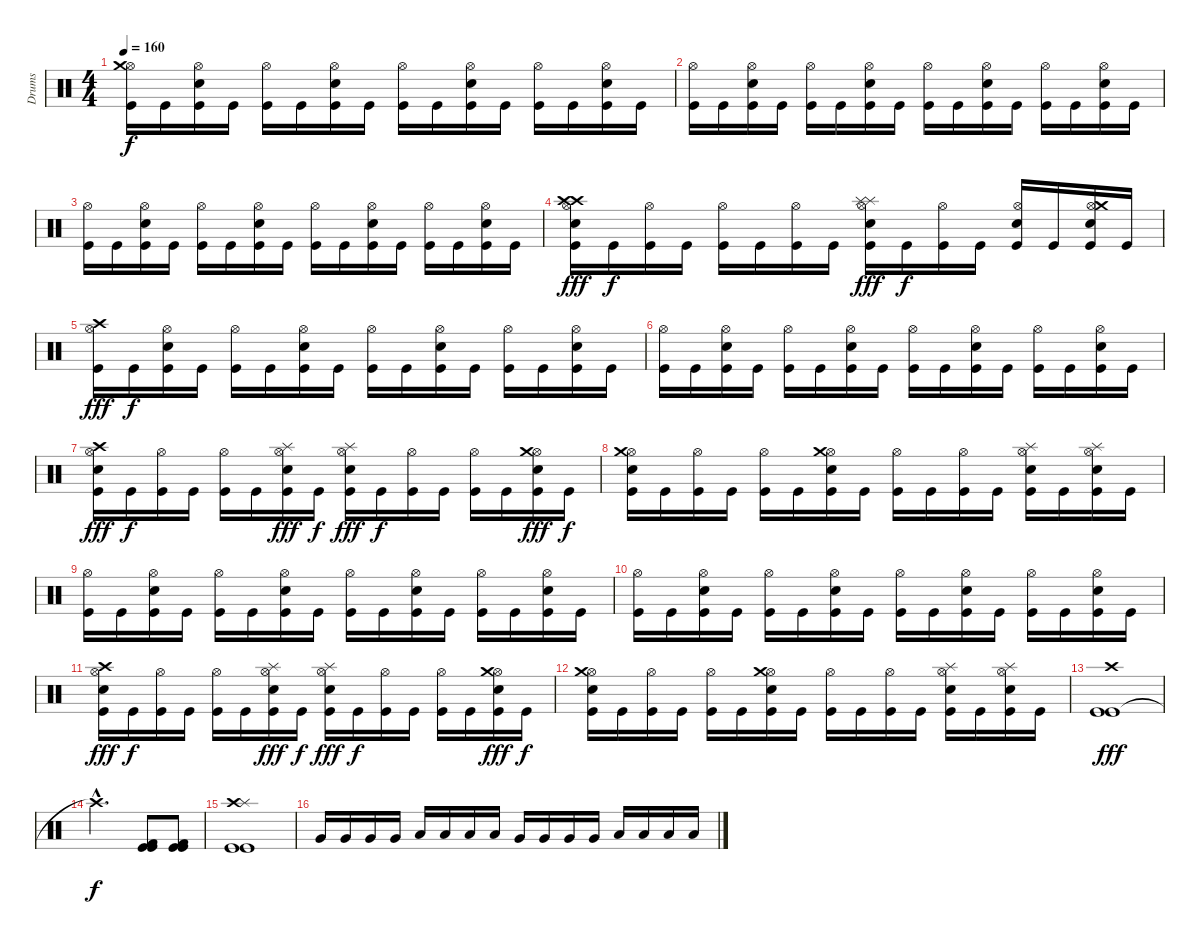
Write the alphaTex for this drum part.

\track ("Drums" "Drums") {instrument percussion}
\staff {score}
\articulation defaults
\ts (4 4)
\tempo 160
\clef neutral
\ks c
("Kick (hit)" "Hi-Hat (open)" "Crash medium (hit)").16{dy f} "Kick (hit)".16 ("Electric Snare (hit)" "Kick (hit)" "Hi-Hat (open)").16 "Kick (hit)".16 ("Kick (hit)" "Hi-Hat (open)").16 "Kick (hit)".16 ("Electric Snare (hit)" "Kick (hit)" "Hi-Hat (open)").16 "Kick (hit)".16 ("Kick (hit)" "Hi-Hat (open)").16 "Kick (hit)".16 ("Electric Snare (hit)" "Kick (hit)" "Hi-Hat (open)").16 "Kick (hit)".16 ("Kick (hit)" "Hi-Hat (open)").16 "Kick (hit)".16 ("Electric Snare (hit)" "Kick (hit)" "Hi-Hat (open)").16 "Kick (hit)".16 |
("Kick (hit)" "Hi-Hat (open)").16 "Kick (hit)".16 ("Electric Snare (hit)" "Kick (hit)" "Hi-Hat (open)").16 "Kick (hit)".16 ("Kick (hit)" "Hi-Hat (open)").16 "Kick (hit)".16 ("Electric Snare (hit)" "Kick (hit)" "Hi-Hat (open)").16 "Kick (hit)".16 ("Kick (hit)" "Hi-Hat (open)").16 "Kick (hit)".16 ("Electric Snare (hit)" "Kick (hit)" "Hi-Hat (open)").16 "Kick (hit)".16 ("Kick (hit)" "Hi-Hat (open)").16 "Kick (hit)".16 ("Electric Snare (hit)" "Kick (hit)" "Hi-Hat (open)").16 "Kick (hit)".16 |
("Kick (hit)" "Hi-Hat (open)").16 "Kick (hit)".16 ("Electric Snare (hit)" "Kick (hit)" "Hi-Hat (open)").16 "Kick (hit)".16 ("Kick (hit)" "Hi-Hat (open)").16 "Kick (hit)".16 ("Electric Snare (hit)" "Kick (hit)" "Hi-Hat (open)").16 "Kick (hit)".16 ("Kick (hit)" "Hi-Hat (open)").16 "Kick (hit)".16 ("Electric Snare (hit)" "Kick (hit)" "Hi-Hat (open)").16 "Kick (hit)".16 ("Kick (hit)" "Hi-Hat (open)").16 "Kick (hit)".16 ("Electric Snare (hit)" "Kick (hit)" "Hi-Hat (open)").16 "Kick (hit)".16 |
("Electric Snare (hit)" "Kick (hit)" "Hi-Hat (open)" "Crash high (hit)" "Crash high (hit)").16{dy fff} "Kick (hit)".16{dy f} ("Kick (hit)" "Hi-Hat (open)").16 "Kick (hit)".16 ("Kick (hit)" "Hi-Hat (open)").16 "Kick (hit)".16 ("Kick (hit)" "Hi-Hat (open)").16 "Kick (hit)".16 ("Electric Snare (hit)" "Kick (hit)" "Hi-Hat (open)" "Splash (hit)" "Splash (hit)").16{dy fff} "Kick (hit)".16{dy f} ("Kick (hit)" "Hi-Hat (open)").16 "Kick (hit)".16 ("Electric Snare (hit)" "Kick (hit)" "Hi-Hat (open)").16 "Kick (hit)".16 ("Electric Snare (hit)" "Kick (hit)" "Hi-Hat (open)" "Crash medium (hit)").16 "Kick (hit)".16 |
("Kick (hit)" "Hi-Hat (open)" "Crash high (hit)").16{dy fff} "Kick (hit)".16{dy f} ("Electric Snare (hit)" "Kick (hit)" "Hi-Hat (open)").16 "Kick (hit)".16 ("Kick (hit)" "Hi-Hat (open)").16 "Kick (hit)".16 ("Electric Snare (hit)" "Kick (hit)" "Hi-Hat (open)").16 "Kick (hit)".16 ("Kick (hit)" "Hi-Hat (open)").16 "Kick (hit)".16 ("Electric Snare (hit)" "Kick (hit)" "Hi-Hat (open)").16 "Kick (hit)".16 ("Kick (hit)" "Hi-Hat (open)").16 "Kick (hit)".16 ("Electric Snare (hit)" "Kick (hit)" "Hi-Hat (open)").16 "Kick (hit)".16 |
("Kick (hit)" "Hi-Hat (open)").16 "Kick (hit)".16 ("Electric Snare (hit)" "Kick (hit)" "Hi-Hat (open)").16 "Kick (hit)".16 ("Kick (hit)" "Hi-Hat (open)").16 "Kick (hit)".16 ("Electric Snare (hit)" "Kick (hit)" "Hi-Hat (open)").16 "Kick (hit)".16 ("Kick (hit)" "Hi-Hat (open)").16 "Kick (hit)".16 ("Electric Snare (hit)" "Kick (hit)" "Hi-Hat (open)").16 "Kick (hit)".16 ("Kick (hit)" "Hi-Hat (open)").16 "Kick (hit)".16 ("Electric Snare (hit)" "Kick (hit)" "Hi-Hat (open)").16 "Kick (hit)".16 |
("Electric Snare (hit)" "Kick (hit)" "Hi-Hat (open)" "Crash high (hit)").16{dy fff} "Kick (hit)".16{dy f} ("Kick (hit)" "Hi-Hat (open)").16 "Kick (hit)".16 ("Kick (hit)" "Hi-Hat (open)").16 "Kick (hit)".16 ("Electric Snare (hit)" "Kick (hit)" "Hi-Hat (open)" "Splash (hit)").16{dy fff} "Kick (hit)".16{dy f} ("Electric Snare (hit)" "Kick (hit)" "Hi-Hat (open)" "Splash (hit)").16{dy fff} "Kick (hit)".16{dy f} ("Kick (hit)" "Hi-Hat (open)").16 "Kick (hit)".16 ("Kick (hit)" "Hi-Hat (open)").16 "Kick (hit)".16 ("Electric Snare (hit)" "Kick (hit)" "Hi-Hat (open)" "Crash medium (hit)").16{dy fff} "Kick (hit)".16{dy f} |
("Electric Snare (hit)" "Kick (hit)" "Hi-Hat (open)" "Crash medium (hit)").16 "Kick (hit)".16 ("Kick (hit)" "Hi-Hat (open)").16 "Kick (hit)".16 ("Kick (hit)" "Hi-Hat (open)").16 "Kick (hit)".16 ("Electric Snare (hit)" "Kick (hit)" "Hi-Hat (open)" "Crash medium (hit)").16 "Kick (hit)".16 ("Kick (hit)" "Hi-Hat (open)").16 "Kick (hit)".16 ("Kick (hit)" "Hi-Hat (open)").16 "Kick (hit)".16 ("Electric Snare (hit)" "Kick (hit)" "Hi-Hat (open)" "Splash (hit)").16 "Kick (hit)".16 ("Electric Snare (hit)" "Kick (hit)" "Hi-Hat (open)" "Splash (hit)").16 "Kick (hit)".16 |
("Kick (hit)" "Hi-Hat (open)").16 "Kick (hit)".16 ("Electric Snare (hit)" "Kick (hit)" "Hi-Hat (open)").16 "Kick (hit)".16 ("Kick (hit)" "Hi-Hat (open)").16 "Kick (hit)".16 ("Electric Snare (hit)" "Kick (hit)" "Hi-Hat (open)").16 "Kick (hit)".16 ("Kick (hit)" "Hi-Hat (open)").16 "Kick (hit)".16 ("Electric Snare (hit)" "Kick (hit)" "Hi-Hat (open)").16 "Kick (hit)".16 ("Kick (hit)" "Hi-Hat (open)").16 "Kick (hit)".16 ("Electric Snare (hit)" "Kick (hit)" "Hi-Hat (open)").16 "Kick (hit)".16 |
("Kick (hit)" "Hi-Hat (open)").16 "Kick (hit)".16 ("Electric Snare (hit)" "Kick (hit)" "Hi-Hat (open)").16 "Kick (hit)".16 ("Kick (hit)" "Hi-Hat (open)").16 "Kick (hit)".16 ("Electric Snare (hit)" "Kick (hit)" "Hi-Hat (open)").16 "Kick (hit)".16 ("Kick (hit)" "Hi-Hat (open)").16 "Kick (hit)".16 ("Electric Snare (hit)" "Kick (hit)" "Hi-Hat (open)").16 "Kick (hit)".16 ("Kick (hit)" "Hi-Hat (open)").16 "Kick (hit)".16 ("Electric Snare (hit)" "Kick (hit)" "Hi-Hat (open)").16 "Kick (hit)".16 |
("Electric Snare (hit)" "Kick (hit)" "Hi-Hat (open)" "Crash high (hit)").16{dy fff} "Kick (hit)".16{dy f} ("Kick (hit)" "Hi-Hat (open)").16 "Kick (hit)".16 ("Kick (hit)" "Hi-Hat (open)").16 "Kick (hit)".16 ("Electric Snare (hit)" "Kick (hit)" "Hi-Hat (open)" "Splash (hit)").16{dy fff} "Kick (hit)".16{dy f} ("Electric Snare (hit)" "Kick (hit)" "Hi-Hat (open)" "Splash (hit)").16{dy fff} "Kick (hit)".16{dy f} ("Kick (hit)" "Hi-Hat (open)").16 "Kick (hit)".16 ("Kick (hit)" "Hi-Hat (open)").16 "Kick (hit)".16 ("Electric Snare (hit)" "Kick (hit)" "Hi-Hat (open)" "Crash medium (hit)").16{dy fff} "Kick (hit)".16{dy f} |
("Electric Snare (hit)" "Kick (hit)" "Hi-Hat (open)" "Crash medium (hit)").16 "Kick (hit)".16 ("Kick (hit)" "Hi-Hat (open)").16 "Kick (hit)".16 ("Kick (hit)" "Hi-Hat (open)").16 "Kick (hit)".16 ("Electric Snare (hit)" "Kick (hit)" "Hi-Hat (open)" "Crash medium (hit)").16 "Kick (hit)".16 ("Kick (hit)" "Hi-Hat (open)").16 "Kick (hit)".16 ("Kick (hit)" "Hi-Hat (open)").16 "Kick (hit)".16 ("Electric Snare (hit)" "Kick (hit)" "Hi-Hat (open)" "Splash (hit)").16 "Kick (hit)".16 ("Electric Snare (hit)" "Kick (hit)" "Hi-Hat (open)" "Splash (hit)").16 "Kick (hit)".16 |
("Kick (hit)" "Kick (hit)" "Crash high (hit)").1{dy fff} |
"Crash high (hit)"{hac t}.2{d dy f} ("Kick (hit)" "Kick (hit)" "Kick (hit) 2").8 ("Kick (hit)" "Kick (hit)" "Kick (hit) 2").8 |
("Kick (hit)" "Kick (hit)" "Splash (hit)" "Crash high (hit)").1 |
"Very Low Tom (hit)".16 "Very Low Tom (hit)".16 "Very Low Tom (hit)".16 "Very Low Tom (hit)".16 "Low Tom (hit)".16 "Low Tom (hit)".16 "Low Tom (hit)".16 "Low Tom (hit)".16 "Very Low Tom (hit)".16 "Very Low Tom (hit)".16 "Very Low Tom (hit)".16 "Very Low Tom (hit)".16 "Low Floor Tom (hit)".16 "Low Floor Tom (hit)".16 "Low Floor Tom (hit)".16 "Low Floor Tom (hit)".16
